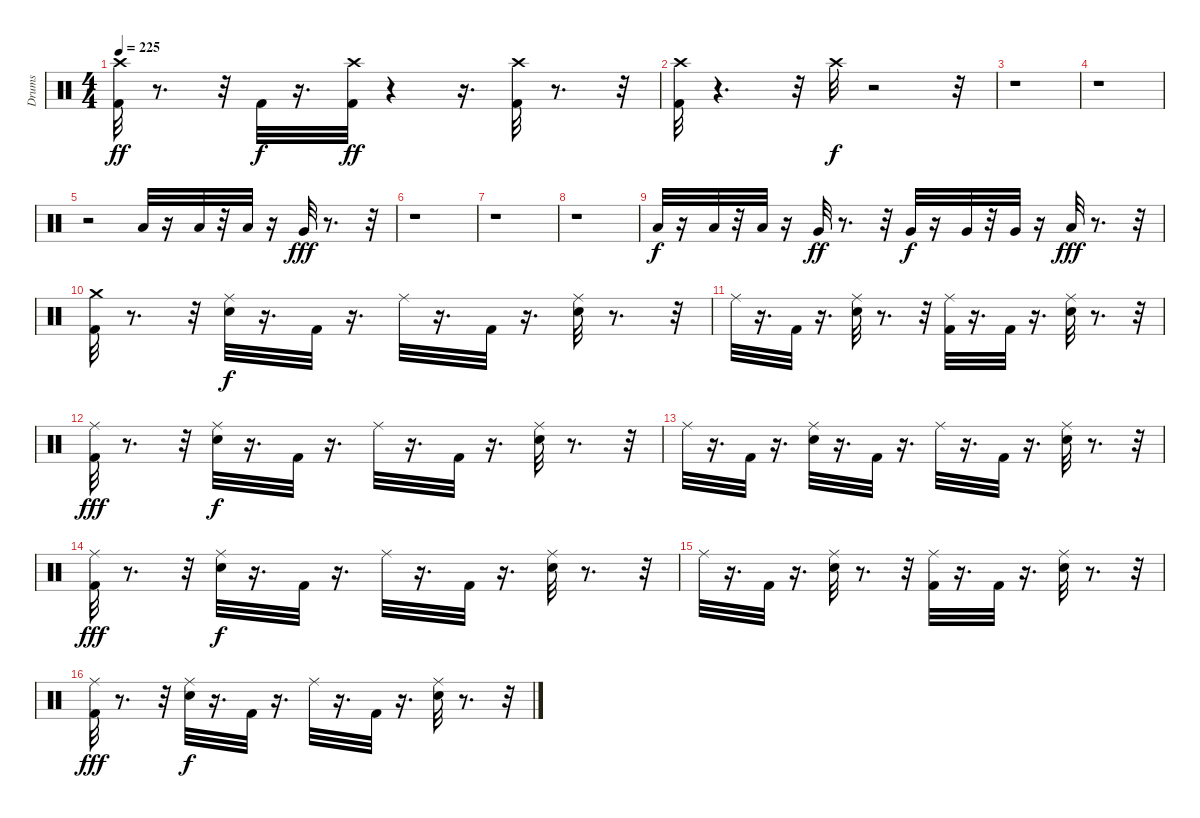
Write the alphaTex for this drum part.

\track ("Drums" "Drums") {instrument percussion}
\staff {score}
\articulation defaults
\ts (4 4)
\tempo 225
\clef neutral
\ks c
("Kick (hit) 2" "Crash high (hit)").32{dy ff} r.8{d} r.32 "Kick (hit) 2".32{dy f} r.16{d} ("Kick (hit) 2" "Crash high (hit)").32{dy ff} r.4 r.16{d} ("Kick (hit) 2" "Crash high (hit)").32 r.8{d} r.32 |
("Crash high (hit)" "Kick (hit) 2").32 r.4{d} r.32 "Crash high (hit)".32{dy f} r.2 r.32 |
r.1 |
r.1 |
r.2 "Low Tom (hit)".32 r.16 "Low Tom (hit)".32 r.32 "Low Tom (hit)".32 r.16 "Very Low Tom (hit)".32{dy fff} r.8{d} r.32 |
r.1 |
r.1 |
r.1 |
"Low Tom (hit)".32{dy f} r.16 "Low Tom (hit)".32 r.32 "Low Tom (hit)".32 r.16 "Very Low Tom (hit)".32{dy ff} r.8{d} r.32 "Very Low Tom (hit)".32{dy f} r.16 "Very Low Tom (hit)".32 r.32 "Very Low Tom (hit)".32 r.16 "Low Floor Tom (hit)".32{dy fff} r.8{d} r.32 |
("Crash medium (hit)" "Kick (hit) 2").32 r.8{d} r.32 ("Ride (middle)" "Snare (hit) 2").32{dy f} r.16{d} "Kick (hit) 2".32 r.16{d} "Ride (middle)".32 r.16{d} "Kick (hit) 2".32 r.16{d} ("Ride (middle)" "Snare (hit) 2").32 r.8{d} r.32 |
"Ride (middle)".32 r.16{d} "Kick (hit) 2".32 r.16{d} ("Ride (middle)" "Snare (hit) 2").32 r.8{d} r.32 ("Ride (middle)" "Kick (hit) 2").32 r.16{d} "Kick (hit) 2".32 r.16{d} ("Ride (middle)" "Snare (hit) 2").32 r.8{d} r.32 |
("Ride (middle)" "Kick (hit) 2").32{dy fff} r.8{d} r.32 ("Ride (middle)" "Snare (hit) 2").32{dy f} r.16{d} "Kick (hit) 2".32 r.16{d} "Ride (middle)".32 r.16{d} "Kick (hit) 2".32 r.16{d} ("Ride (middle)" "Snare (hit) 2").32 r.8{d} r.32 |
"Ride (middle)".32 r.16{d} "Kick (hit) 2".32 r.16{d} ("Ride (middle)" "Snare (hit) 2").32 r.16{d} "Kick (hit) 2".32 r.16{d} "Ride (middle)".32 r.16{d} "Kick (hit) 2".32 r.16{d} ("Ride (middle)" "Snare (hit) 2").32 r.8{d} r.32 |
("Ride (middle)" "Kick (hit) 2").32{dy fff} r.8{d} r.32 ("Ride (middle)" "Snare (hit) 2").32{dy f} r.16{d} "Kick (hit) 2".32 r.16{d} "Ride (middle)".32 r.16{d} "Kick (hit) 2".32 r.16{d} ("Ride (middle)" "Snare (hit) 2").32 r.8{d} r.32 |
"Ride (middle)".32 r.16{d} "Kick (hit) 2".32 r.16{d} ("Ride (middle)" "Snare (hit) 2").32 r.8{d} r.32 ("Ride (middle)" "Kick (hit) 2").32 r.16{d} "Kick (hit) 2".32 r.16{d} ("Ride (middle)" "Snare (hit) 2").32 r.8{d} r.32 |
("Ride (middle)" "Kick (hit) 2").32{dy fff} r.8{d} r.32 ("Ride (middle)" "Snare (hit) 2").32{dy f} r.16{d} "Kick (hit) 2".32 r.16{d} "Ride (middle)".32 r.16{d} "Kick (hit) 2".32 r.16{d} ("Ride (middle)" "Snare (hit) 2").32 r.8{d} r.32
